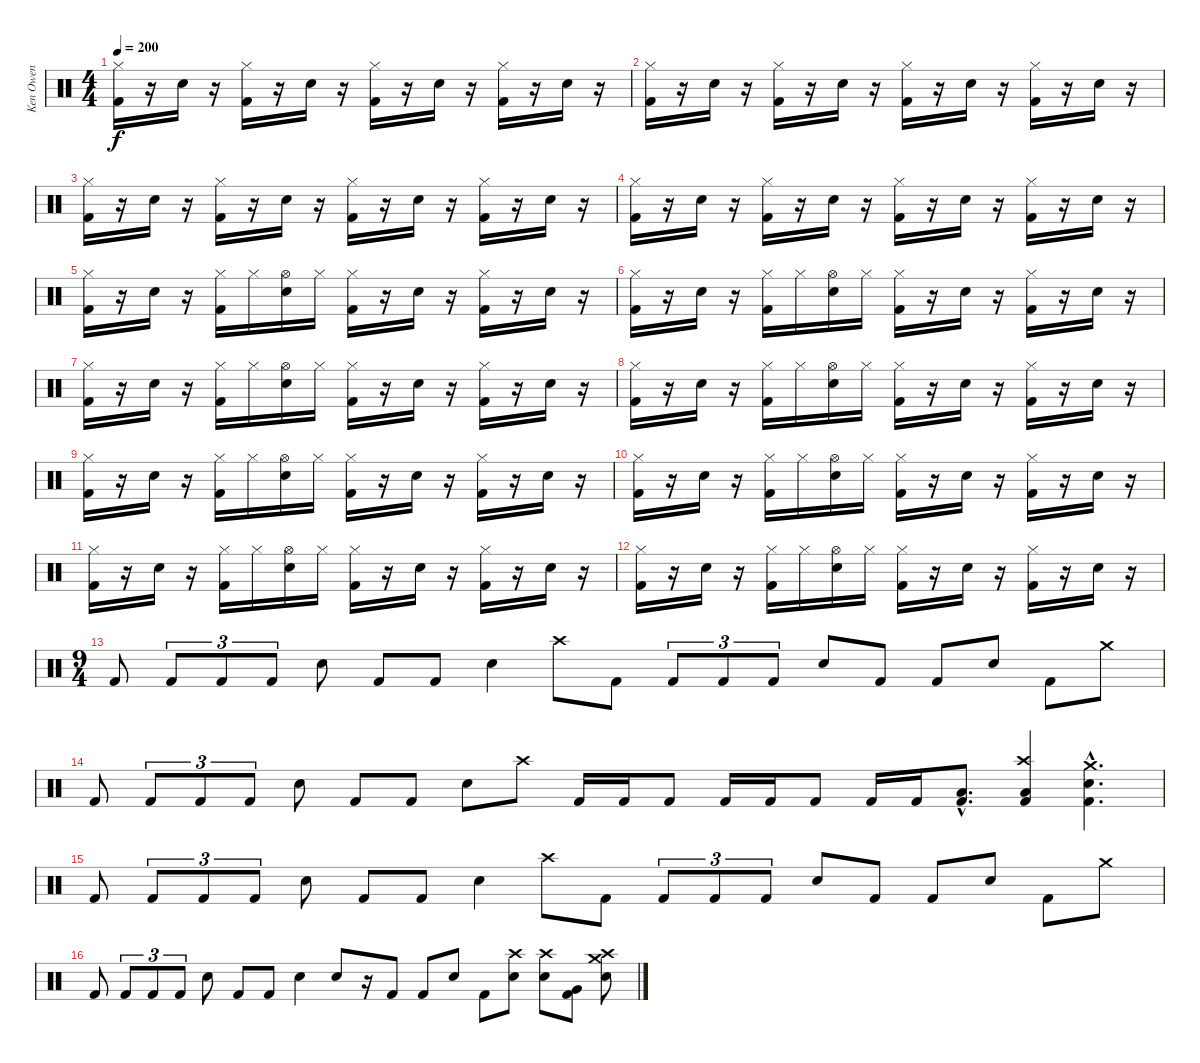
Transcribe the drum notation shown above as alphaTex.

\track ("Ken Owen" "Ken Owen") {instrument percussion}
\staff {score}
\articulation defaults
\ts (4 4)
\tempo 200
\clef neutral
\ks c
("Hi-Hat (closed)" "Kick (hit) 2").16{dy f} r.16 "Snare (hit) 2".16 r.16 ("Hi-Hat (closed)" "Kick (hit) 2").16 r.16 "Snare (hit) 2".16 r.16 ("Hi-Hat (closed)" "Kick (hit) 2").16 r.16 "Snare (hit) 2".16 r.16 ("Hi-Hat (closed)" "Kick (hit) 2").16 r.16 "Snare (hit) 2".16 r.16 |
("Hi-Hat (closed)" "Kick (hit) 2").16 r.16 "Snare (hit) 2".16 r.16 ("Hi-Hat (closed)" "Kick (hit) 2").16 r.16 "Snare (hit) 2".16 r.16 ("Hi-Hat (closed)" "Kick (hit) 2").16 r.16 "Snare (hit) 2".16 r.16 ("Hi-Hat (closed)" "Kick (hit) 2").16 r.16 "Snare (hit) 2".16 r.16 |
("Hi-Hat (closed)" "Kick (hit) 2").16 r.16 "Snare (hit) 2".16 r.16 ("Hi-Hat (closed)" "Kick (hit) 2").16 r.16 "Snare (hit) 2".16 r.16 ("Hi-Hat (closed)" "Kick (hit) 2").16 r.16 "Snare (hit) 2".16 r.16 ("Hi-Hat (closed)" "Kick (hit) 2").16 r.16 "Snare (hit) 2".16 r.16 |
("Hi-Hat (closed)" "Kick (hit) 2").16 r.16 "Snare (hit) 2".16 r.16 ("Hi-Hat (closed)" "Kick (hit) 2").16 r.16 "Snare (hit) 2".16 r.16 ("Hi-Hat (closed)" "Kick (hit) 2").16 r.16 "Snare (hit) 2".16 r.16 ("Hi-Hat (closed)" "Kick (hit) 2").16 r.16 "Snare (hit) 2".16 r.16 |
("Hi-Hat (closed)" "Kick (hit) 2").16 r.16 "Snare (hit) 2".16 r.16 ("Hi-Hat (closed)" "Kick (hit) 2").16 "Hi-Hat (closed)".16 ("Hi-Hat (open)" "Snare (hit) 2").16 "Hi-Hat (closed)".16 ("Hi-Hat (closed)" "Kick (hit) 2").16 r.16 "Snare (hit) 2".16 r.16 ("Hi-Hat (closed)" "Kick (hit) 2").16 r.16 "Snare (hit) 2".16 r.16 |
("Hi-Hat (closed)" "Kick (hit) 2").16 r.16 "Snare (hit) 2".16 r.16 ("Hi-Hat (closed)" "Kick (hit) 2").16 "Hi-Hat (closed)".16 ("Hi-Hat (open)" "Snare (hit) 2").16 "Hi-Hat (closed)".16 ("Hi-Hat (closed)" "Kick (hit) 2").16 r.16 "Snare (hit) 2".16 r.16 ("Hi-Hat (closed)" "Kick (hit) 2").16 r.16 "Snare (hit) 2".16 r.16 |
("Hi-Hat (closed)" "Kick (hit) 2").16 r.16 "Snare (hit) 2".16 r.16 ("Hi-Hat (closed)" "Kick (hit) 2").16 "Hi-Hat (closed)".16 ("Hi-Hat (open)" "Snare (hit) 2").16 "Hi-Hat (closed)".16 ("Hi-Hat (closed)" "Kick (hit) 2").16 r.16 "Snare (hit) 2".16 r.16 ("Hi-Hat (closed)" "Kick (hit) 2").16 r.16 "Snare (hit) 2".16 r.16 |
("Hi-Hat (closed)" "Kick (hit) 2").16 r.16 "Snare (hit) 2".16 r.16 ("Hi-Hat (closed)" "Kick (hit) 2").16 "Hi-Hat (closed)".16 ("Hi-Hat (open)" "Snare (hit) 2").16 "Hi-Hat (closed)".16 ("Hi-Hat (closed)" "Kick (hit) 2").16 r.16 "Snare (hit) 2".16 r.16 ("Hi-Hat (closed)" "Kick (hit) 2").16 r.16 "Snare (hit) 2".16 r.16 |
("Hi-Hat (closed)" "Kick (hit) 2").16 r.16 "Snare (hit) 2".16 r.16 ("Hi-Hat (closed)" "Kick (hit) 2").16 "Hi-Hat (closed)".16 ("Hi-Hat (open)" "Snare (hit) 2").16 "Hi-Hat (closed)".16 ("Hi-Hat (closed)" "Kick (hit) 2").16 r.16 "Snare (hit) 2".16 r.16 ("Hi-Hat (closed)" "Kick (hit) 2").16 r.16 "Snare (hit) 2".16 r.16 |
("Hi-Hat (closed)" "Kick (hit) 2").16 r.16 "Snare (hit) 2".16 r.16 ("Hi-Hat (closed)" "Kick (hit) 2").16 "Hi-Hat (closed)".16 ("Hi-Hat (open)" "Snare (hit) 2").16 "Hi-Hat (closed)".16 ("Hi-Hat (closed)" "Kick (hit) 2").16 r.16 "Snare (hit) 2".16 r.16 ("Hi-Hat (closed)" "Kick (hit) 2").16 r.16 "Snare (hit) 2".16 r.16 |
("Hi-Hat (closed)" "Kick (hit) 2").16 r.16 "Snare (hit) 2".16 r.16 ("Hi-Hat (closed)" "Kick (hit) 2").16 "Hi-Hat (closed)".16 ("Hi-Hat (open)" "Snare (hit) 2").16 "Hi-Hat (closed)".16 ("Hi-Hat (closed)" "Kick (hit) 2").16 r.16 "Snare (hit) 2".16 r.16 ("Hi-Hat (closed)" "Kick (hit) 2").16 r.16 "Snare (hit) 2".16 r.16 |
("Hi-Hat (closed)" "Kick (hit) 2").16 r.16 "Snare (hit) 2".16 r.16 ("Hi-Hat (closed)" "Kick (hit) 2").16 "Hi-Hat (closed)".16 ("Hi-Hat (open)" "Snare (hit) 2").16 "Hi-Hat (closed)".16 ("Hi-Hat (closed)" "Kick (hit) 2").16 r.16 "Snare (hit) 2".16 r.16 ("Hi-Hat (closed)" "Kick (hit) 2").16 r.16 "Snare (hit) 2".16 r.16 |
\ts (9 4)
"Kick (hit) 2".8 "Kick (hit) 2".8{tu (3 2)} "Kick (hit) 2".8{tu (3 2)} "Kick (hit) 2".8{tu (3 2)} "Snare (hit) 2".8 "Kick (hit) 2".8 "Kick (hit) 2".8 "Snare (hit) 2".4 "Crash high (hit)".8 "Kick (hit) 2".8 "Kick (hit) 2".8{tu (3 2)} "Kick (hit) 2".8{tu (3 2)} "Kick (hit) 2".8{tu (3 2)} "Snare (hit) 2".8 "Kick (hit) 2".8 "Kick (hit) 2".8 "Snare (hit) 2".8 "Kick (hit) 2".8 "Crash medium (hit)".8 |
"Kick (hit) 2".8 "Kick (hit) 2".8{tu (3 2)} "Kick (hit) 2".8{tu (3 2)} "Kick (hit) 2".8{tu (3 2)} "Snare (hit) 2".8 "Kick (hit) 2".8 "Kick (hit) 2".8 "Snare (hit) 2".8 "Crash high (hit)".8 "Kick (hit) 2".16 "Kick (hit) 2".16 "Kick (hit) 2".8 "Kick (hit) 2".16 "Kick (hit) 2".16 "Kick (hit) 2".8 "Kick (hit) 2".16 "Kick (hit) 2".16 ("Kick (hit) 2"{hac} "Low Floor Tom (hit)"{hac}).8{d} ("Crash high (hit)" "Kick (hit) 2" "Low Floor Tom (hit)").4 ("Crash medium (hit)"{hac} "Kick (hit) 2"{hac} "Snare (hit) 2"{hac}).4{d} |
"Kick (hit) 2".8 "Kick (hit) 2".8{tu (3 2)} "Kick (hit) 2".8{tu (3 2)} "Kick (hit) 2".8{tu (3 2)} "Snare (hit) 2".8 "Kick (hit) 2".8 "Kick (hit) 2".8 "Snare (hit) 2".4 "Crash high (hit)".8 "Kick (hit) 2".8 "Kick (hit) 2".8{tu (3 2)} "Kick (hit) 2".8{tu (3 2)} "Kick (hit) 2".8{tu (3 2)} "Snare (hit) 2".8 "Kick (hit) 2".8 "Kick (hit) 2".8 "Snare (hit) 2".8 "Kick (hit) 2".8 "Crash medium (hit)".8 |
"Kick (hit) 2".8 "Kick (hit) 2".8{tu (3 2)} "Kick (hit) 2".8{tu (3 2)} "Kick (hit) 2".8{tu (3 2)} "Snare (hit) 2".8 "Kick (hit) 2".8 "Kick (hit) 2".8 "Snare (hit) 2".4 "Snare (hit) 2".8 r.16 "Kick (hit) 2".8 "Kick (hit) 2".8 "Snare (hit) 2".8 "Kick (hit) 2".8 ("Crash high (hit)" "Snare (hit) 2").8 ("Crash high (hit)" "Snare (hit) 2").8 ("Kick (hit) 2" "Very Low Tom (hit)").8 ("Crash high (hit)" "Snare (hit) 2" "Crash medium (hit)").8
